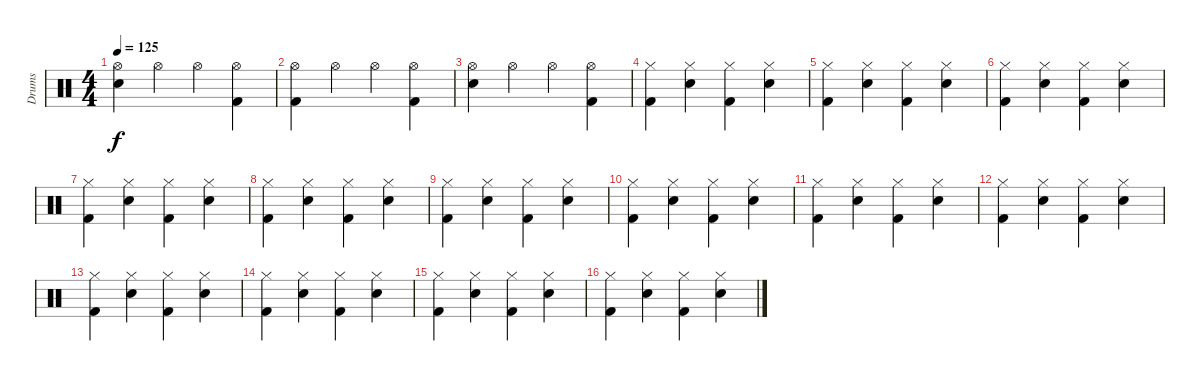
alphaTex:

\track ("Drums" "Drums") {instrument percussion}
\staff {score}
\articulation defaults
\ts (4 4)
\tempo 125
\clef neutral
\ks c
("Hi-Hat (open)" "Snare (hit) 2").4{dy f} "Hi-Hat (open)".4 "Hi-Hat (open)".4 ("Hi-Hat (open)" "Kick (hit) 2").4 |
("Hi-Hat (open)" "Kick (hit) 2").4 "Hi-Hat (open)".4 "Hi-Hat (open)".4 ("Hi-Hat (open)" "Kick (hit) 2").4 |
("Hi-Hat (open)" "Snare (hit) 2").4 "Hi-Hat (open)".4 "Hi-Hat (open)".4 ("Hi-Hat (open)" "Kick (hit) 2").4 |
("Hi-Hat (closed)" "Kick (hit) 2").4 ("Hi-Hat (closed)" "Snare (hit) 2").4 ("Hi-Hat (closed)" "Kick (hit) 2").4 ("Hi-Hat (closed)" "Snare (hit) 2").4 |
("Hi-Hat (closed)" "Kick (hit) 2").4 ("Hi-Hat (closed)" "Snare (hit) 2").4 ("Hi-Hat (closed)" "Kick (hit) 2").4 ("Hi-Hat (closed)" "Snare (hit) 2").4 |
("Hi-Hat (closed)" "Kick (hit) 2").4 ("Hi-Hat (closed)" "Snare (hit) 2").4 ("Hi-Hat (closed)" "Kick (hit) 2").4 ("Hi-Hat (closed)" "Snare (hit) 2").4 |
("Hi-Hat (closed)" "Kick (hit) 2").4 ("Hi-Hat (closed)" "Snare (hit) 2").4 ("Hi-Hat (closed)" "Kick (hit) 2").4 ("Hi-Hat (closed)" "Snare (hit) 2").4 |
("Hi-Hat (closed)" "Kick (hit) 2").4 ("Hi-Hat (closed)" "Snare (hit) 2").4 ("Hi-Hat (closed)" "Kick (hit) 2").4 ("Hi-Hat (closed)" "Snare (hit) 2").4 |
("Hi-Hat (closed)" "Kick (hit) 2").4 ("Hi-Hat (closed)" "Snare (hit) 2").4 ("Hi-Hat (closed)" "Kick (hit) 2").4 ("Hi-Hat (closed)" "Snare (hit) 2").4 |
("Hi-Hat (closed)" "Kick (hit) 2").4 ("Hi-Hat (closed)" "Snare (hit) 2").4 ("Hi-Hat (closed)" "Kick (hit) 2").4 ("Hi-Hat (closed)" "Snare (hit) 2").4 |
("Hi-Hat (closed)" "Kick (hit) 2").4 ("Hi-Hat (closed)" "Snare (hit) 2").4 ("Hi-Hat (closed)" "Kick (hit) 2").4 ("Hi-Hat (closed)" "Snare (hit) 2").4 |
("Hi-Hat (closed)" "Kick (hit) 2").4 ("Hi-Hat (closed)" "Snare (hit) 2").4 ("Hi-Hat (closed)" "Kick (hit) 2").4 ("Hi-Hat (closed)" "Snare (hit) 2").4 |
("Hi-Hat (closed)" "Kick (hit) 2").4 ("Hi-Hat (closed)" "Snare (hit) 2").4 ("Hi-Hat (closed)" "Kick (hit) 2").4 ("Hi-Hat (closed)" "Snare (hit) 2").4 |
("Hi-Hat (closed)" "Kick (hit) 2").4 ("Hi-Hat (closed)" "Snare (hit) 2").4 ("Hi-Hat (closed)" "Kick (hit) 2").4 ("Hi-Hat (closed)" "Snare (hit) 2").4 |
("Hi-Hat (closed)" "Kick (hit) 2").4 ("Hi-Hat (closed)" "Snare (hit) 2").4 ("Hi-Hat (closed)" "Kick (hit) 2").4 ("Hi-Hat (closed)" "Snare (hit) 2").4 |
("Hi-Hat (closed)" "Kick (hit) 2").4 ("Hi-Hat (closed)" "Snare (hit) 2").4 ("Hi-Hat (closed)" "Kick (hit) 2").4 ("Hi-Hat (closed)" "Snare (hit) 2").4
